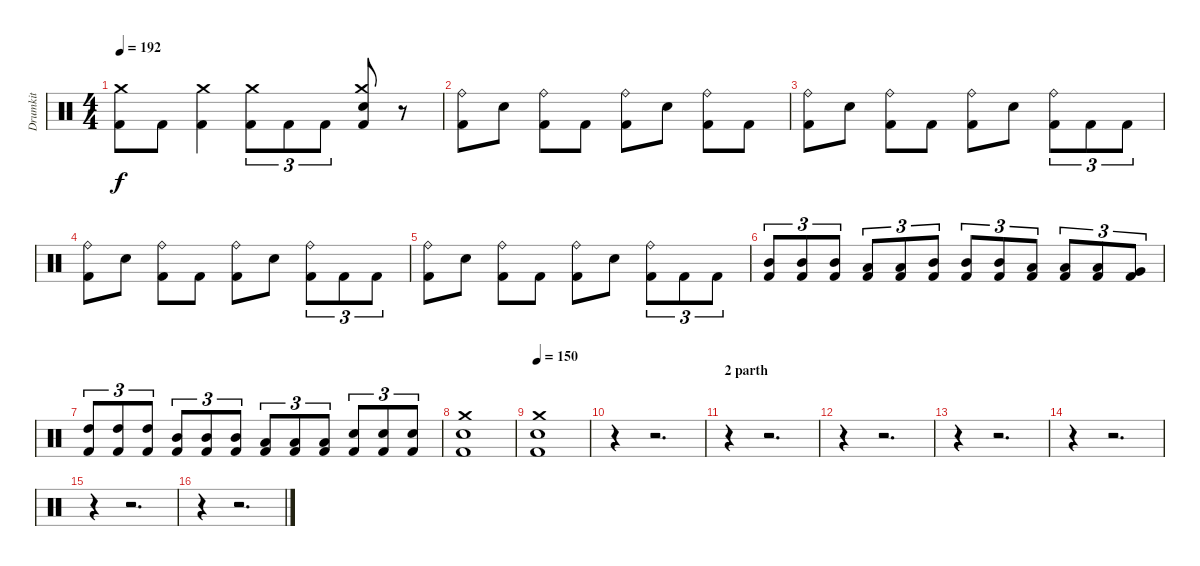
\track ("Drumkit" "Drumkit") {instrument percussion}
\staff {score}
\articulation defaults
\ts (4 4)
\tempo 192
\clef neutral
\ks c
("Kick (hit) 2" "Crash medium (hit)").8{dy f} "Kick (hit) 2".8 ("Kick (hit) 2" "Crash medium (hit)").4 ("Crash medium (hit)" "Kick (hit) 2").8{tu (3 2)} "Kick (hit) 2".8{tu (3 2)} "Kick (hit) 2".8{tu (3 2)} ("Kick (hit) 2" "Snare (hit) 2" "Crash medium (hit)").8 r.8 |
("Kick (hit) 2" "Ride (bell)").8 "Snare (hit) 2".8 ("Kick (hit) 2" "Ride (bell)").8 "Kick (hit) 2".8 ("Kick (hit) 2" "Ride (bell)").8 "Snare (hit) 2".8 ("Kick (hit) 2" "Ride (bell)").8 "Kick (hit) 2".8 |
("Kick (hit) 2" "Ride (bell)").8 "Snare (hit) 2".8 ("Kick (hit) 2" "Ride (bell)").8 "Kick (hit) 2".8 ("Kick (hit) 2" "Ride (bell)").8 "Snare (hit) 2".8 ("Kick (hit) 2" "Ride (bell)").8{tu (3 2)} "Kick (hit) 2".8{tu (3 2)} "Kick (hit) 2".8{tu (3 2)} |
("Kick (hit) 2" "Ride (bell)").8 "Snare (hit) 2".8 ("Kick (hit) 2" "Ride (bell)").8 "Kick (hit) 2".8 ("Kick (hit) 2" "Ride (bell)").8 "Snare (hit) 2".8 ("Kick (hit) 2" "Ride (bell)").8{tu (3 2)} "Kick (hit) 2".8{tu (3 2)} "Kick (hit) 2".8{tu (3 2)} |
("Kick (hit) 2" "Ride (bell)").8 "Snare (hit) 2".8 ("Kick (hit) 2" "Ride (bell)").8 "Kick (hit) 2".8 ("Kick (hit) 2" "Ride (bell)").8 "Snare (hit) 2".8 ("Kick (hit) 2" "Ride (bell)").8{tu (3 2)} "Kick (hit) 2".8{tu (3 2)} "Kick (hit) 2".8{tu (3 2)} |
("Mid Tom (hit)" "Kick (hit) 2").8{tu (3 2)} ("Mid Tom (hit)" "Kick (hit) 2").8{tu (3 2)} ("Mid Tom (hit)" "Kick (hit) 2").8{tu (3 2)} ("Low Tom (hit)" "Kick (hit) 2").8{tu (3 2)} ("Low Tom (hit)" "Kick (hit) 2").8{tu (3 2)} ("Mid Tom (hit)" "Kick (hit) 2").8{tu (3 2)} ("Mid Tom (hit)" "Kick (hit) 2").8{tu (3 2)} ("Mid Tom (hit)" "Kick (hit) 2").8{tu (3 2)} ("Low Tom (hit)" "Kick (hit) 2").8{tu (3 2)} ("Low Tom (hit)" "Kick (hit) 2").8{tu (3 2)} ("Low Tom (hit)" "Kick (hit) 2").8{tu (3 2)} ("Very Low Tom (hit)" "Kick (hit) 2").8{tu (3 2)} |
("Kick (hit) 2" "High Tom (hit)").8{tu (3 2)} ("Kick (hit) 2" "High Tom (hit)").8{tu (3 2)} ("Kick (hit) 2" "High Tom (hit)").8{tu (3 2)} ("Kick (hit) 2" "Mid Tom (hit)").8{tu (3 2)} ("Kick (hit) 2" "Mid Tom (hit)").8{tu (3 2)} ("Kick (hit) 2" "Mid Tom (hit)").8{tu (3 2)} ("Kick (hit) 2" "Low Tom (hit)").8{tu (3 2)} ("Kick (hit) 2" "Low Tom (hit)").8{tu (3 2)} ("Kick (hit) 2" "Low Tom (hit)").8{tu (3 2)} ("Kick (hit) 2" "Snare (hit) 2").8{tu (3 2)} ("Kick (hit) 2" "Snare (hit) 2").8{tu (3 2)} ("Kick (hit) 2" "Snare (hit) 2").8{tu (3 2)} |
("Snare (hit) 2" "Crash medium (hit)" "Kick (hit) 2").1 |
\tempo 150
("Crash medium (hit)" "Kick (hit) 2" "Snare (hit) 2").1 |
r.4 r.2{d} |
\section ("" "2 parth")
r.4 r.2{d} |
r.4 r.2{d} |
r.4 r.2{d} |
r.4 r.2{d} |
r.4 r.2{d} |
r.4 r.2{d}
